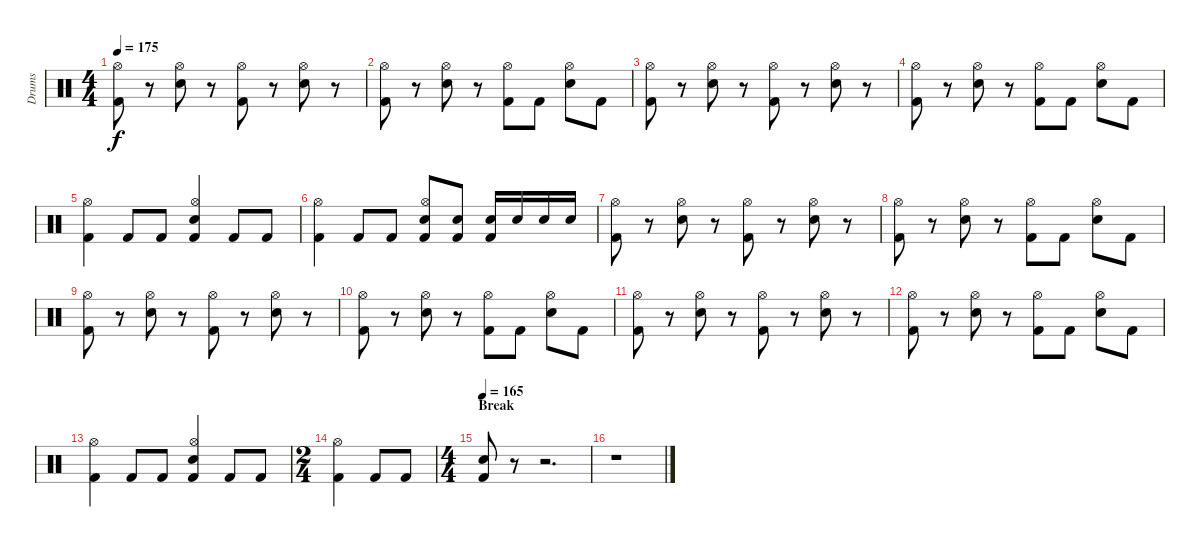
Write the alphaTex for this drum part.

\track ("Drums" "Drums") {instrument percussion}
\staff {score}
\articulation defaults
\ts (4 4)
\tempo 175
\clef neutral
\ks c
("Kick (hit) 2" "Hi-Hat (open)").8{dy f} r.8 ("Electric Snare (hit)" "Hi-Hat (open)").8 r.8 ("Kick (hit) 2" "Hi-Hat (open)").8 r.8 ("Electric Snare (hit)" "Hi-Hat (open)").8 r.8 |
("Kick (hit) 2" "Hi-Hat (open)").8 r.8 ("Electric Snare (hit)" "Hi-Hat (open)").8 r.8 ("Kick (hit) 2" "Hi-Hat (open)").8 "Kick (hit) 2".8 ("Electric Snare (hit)" "Hi-Hat (open)").8 "Kick (hit) 2".8 |
("Kick (hit) 2" "Hi-Hat (open)").8 r.8 ("Electric Snare (hit)" "Hi-Hat (open)").8 r.8 ("Kick (hit) 2" "Hi-Hat (open)").8 r.8 ("Electric Snare (hit)" "Hi-Hat (open)").8 r.8 |
("Kick (hit) 2" "Hi-Hat (open)").8 r.8 ("Electric Snare (hit)" "Hi-Hat (open)").8 r.8 ("Kick (hit) 2" "Hi-Hat (open)").8 "Kick (hit) 2".8 ("Electric Snare (hit)" "Hi-Hat (open)").8 "Kick (hit) 2".8 |
("Kick (hit) 2" "Hi-Hat (open)").4 "Kick (hit) 2".8 "Kick (hit) 2".8 ("Kick (hit) 2" "Electric Snare (hit)" "Hi-Hat (open)").4 "Kick (hit) 2".8 "Kick (hit) 2".8 |
("Kick (hit) 2" "Hi-Hat (open)").4 "Kick (hit) 2".8 "Kick (hit) 2".8 ("Kick (hit) 2" "Electric Snare (hit)" "Hi-Hat (open)").8 ("Kick (hit) 2" "Electric Snare (hit)").8 ("Kick (hit) 2" "Electric Snare (hit)").16 "Electric Snare (hit)".16 "Electric Snare (hit)".16 "Electric Snare (hit)".16 |
("Kick (hit) 2" "Hi-Hat (open)").8 r.8 ("Electric Snare (hit)" "Hi-Hat (open)").8 r.8 ("Kick (hit) 2" "Hi-Hat (open)").8 r.8 ("Electric Snare (hit)" "Hi-Hat (open)").8 r.8 |
("Kick (hit) 2" "Hi-Hat (open)").8 r.8 ("Electric Snare (hit)" "Hi-Hat (open)").8 r.8 ("Kick (hit) 2" "Hi-Hat (open)").8 "Kick (hit) 2".8 ("Electric Snare (hit)" "Hi-Hat (open)").8 "Kick (hit) 2".8 |
("Kick (hit) 2" "Hi-Hat (open)").8 r.8 ("Electric Snare (hit)" "Hi-Hat (open)").8 r.8 ("Kick (hit) 2" "Hi-Hat (open)").8 r.8 ("Electric Snare (hit)" "Hi-Hat (open)").8 r.8 |
("Kick (hit) 2" "Hi-Hat (open)").8 r.8 ("Electric Snare (hit)" "Hi-Hat (open)").8 r.8 ("Kick (hit) 2" "Hi-Hat (open)").8 "Kick (hit) 2".8 ("Electric Snare (hit)" "Hi-Hat (open)").8 "Kick (hit) 2".8 |
("Kick (hit) 2" "Hi-Hat (open)").8 r.8 ("Electric Snare (hit)" "Hi-Hat (open)").8 r.8 ("Kick (hit) 2" "Hi-Hat (open)").8 r.8 ("Electric Snare (hit)" "Hi-Hat (open)").8 r.8 |
("Kick (hit) 2" "Hi-Hat (open)").8 r.8 ("Electric Snare (hit)" "Hi-Hat (open)").8 r.8 ("Kick (hit) 2" "Hi-Hat (open)").8 "Kick (hit) 2".8 ("Electric Snare (hit)" "Hi-Hat (open)").8 "Kick (hit) 2".8 |
("Kick (hit) 2" "Hi-Hat (open)").4 "Kick (hit) 2".8 "Kick (hit) 2".8 ("Kick (hit) 2" "Electric Snare (hit)" "Hi-Hat (open)").4 "Kick (hit) 2".8 "Kick (hit) 2".8 |
\ts (2 4)
("Kick (hit) 2" "Hi-Hat (open)").4 "Kick (hit) 2".8 "Kick (hit) 2".8 |
\ts (4 4)
\section ("" "Break")
\tempo 165
("Kick (hit) 2" "Electric Snare (hit)").8 r.8 r.2{d} |
r.1
